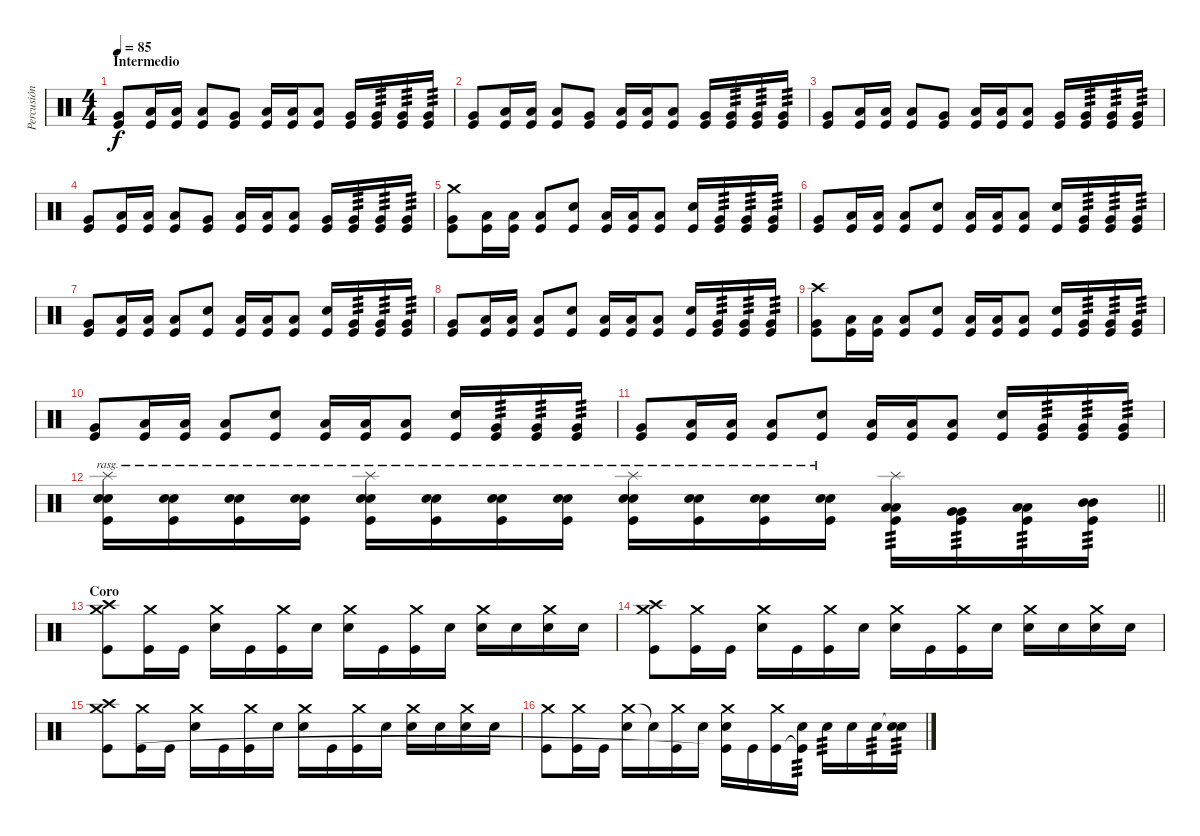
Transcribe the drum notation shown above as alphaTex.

\track ("Percusión" "Percusión") {instrument percussion}
\staff {score}
\articulation defaults
\ts (4 4)
\section ("" "Intermedio")
\tempo 85
\clef neutral
\ks c
("Very Low Tom (hit)" "Kick (hit)").8{dy f} ("Low Floor Tom (hit)" "Kick (hit)").16 ("Low Floor Tom (hit)" "Kick (hit)").16 ("Low Floor Tom (hit)" "Kick (hit)").8 ("Very Low Tom (hit)" "Kick (hit)").8 ("Low Floor Tom (hit)" "Kick (hit)").16 ("Low Floor Tom (hit)" "Kick (hit)").16 ("Low Floor Tom (hit)" "Kick (hit)").8 ("Very Low Tom (hit)" "Kick (hit)").16 ("Very Low Tom (hit)" "Kick (hit)").16{tp 3} ("Very Low Tom (hit)" "Kick (hit)").16{tp 3} ("Very Low Tom (hit)" "Kick (hit)").16{tp 3} |
("Very Low Tom (hit)" "Kick (hit)").8 ("Low Floor Tom (hit)" "Kick (hit)").16 ("Low Floor Tom (hit)" "Kick (hit)").16 ("Low Floor Tom (hit)" "Kick (hit)").8 ("Very Low Tom (hit)" "Kick (hit)").8 ("Low Floor Tom (hit)" "Kick (hit)").16 ("Low Floor Tom (hit)" "Kick (hit)").16 ("Low Floor Tom (hit)" "Kick (hit)").8 ("Very Low Tom (hit)" "Kick (hit)").16 ("Very Low Tom (hit)" "Kick (hit)").16{tp 3} ("Very Low Tom (hit)" "Kick (hit)").16{tp 3} ("Very Low Tom (hit)" "Kick (hit)").16{tp 3} |
("Very Low Tom (hit)" "Kick (hit)").8 ("Low Floor Tom (hit)" "Kick (hit)").16 ("Low Floor Tom (hit)" "Kick (hit)").16 ("Low Floor Tom (hit)" "Kick (hit)").8 ("Very Low Tom (hit)" "Kick (hit)").8 ("Low Floor Tom (hit)" "Kick (hit)").16 ("Low Floor Tom (hit)" "Kick (hit)").16 ("Low Floor Tom (hit)" "Kick (hit)").8 ("Very Low Tom (hit)" "Kick (hit)").16 ("Very Low Tom (hit)" "Kick (hit)").16{tp 3} ("Very Low Tom (hit)" "Kick (hit)").16{tp 3} ("Very Low Tom (hit)" "Kick (hit)").16{tp 3} |
("Very Low Tom (hit)" "Kick (hit)").8 ("Low Floor Tom (hit)" "Kick (hit)").16 ("Low Floor Tom (hit)" "Kick (hit)").16 ("Low Floor Tom (hit)" "Kick (hit)").8 ("Very Low Tom (hit)" "Kick (hit)").8 ("Low Floor Tom (hit)" "Kick (hit)").16 ("Low Floor Tom (hit)" "Kick (hit)").16 ("Low Floor Tom (hit)" "Kick (hit)").8 ("Very Low Tom (hit)" "Kick (hit)").16 ("Very Low Tom (hit)" "Kick (hit)").16{tp 3} ("Very Low Tom (hit)" "Kick (hit)").16{tp 3} ("Very Low Tom (hit)" "Kick (hit)").16{tp 3} |
("Crash medium (hit)" "Very Low Tom (hit)" "Kick (hit)").8 ("Low Floor Tom (hit)" "Kick (hit)").16 ("Low Floor Tom (hit)" "Kick (hit)").16 ("Low Floor Tom (hit)" "Kick (hit)").8 ("Electric Snare (hit)" "Kick (hit)").8 ("Low Floor Tom (hit)" "Kick (hit)").16 ("Low Floor Tom (hit)" "Kick (hit)").16 ("Low Floor Tom (hit)" "Kick (hit)").8 ("Electric Snare (hit)" "Kick (hit)").16 ("Very Low Tom (hit)" "Kick (hit)").16{tp 3} ("Very Low Tom (hit)" "Kick (hit)").16{tp 3} ("Very Low Tom (hit)" "Kick (hit)").16{tp 3} |
("Very Low Tom (hit)" "Kick (hit)").8 ("Low Floor Tom (hit)" "Kick (hit)").16 ("Low Floor Tom (hit)" "Kick (hit)").16 ("Low Floor Tom (hit)" "Kick (hit)").8 ("Electric Snare (hit)" "Kick (hit)").8 ("Low Floor Tom (hit)" "Kick (hit)").16 ("Low Floor Tom (hit)" "Kick (hit)").16 ("Low Floor Tom (hit)" "Kick (hit)").8 ("Electric Snare (hit)" "Kick (hit)").16 ("Very Low Tom (hit)" "Kick (hit)").16{tp 3} ("Very Low Tom (hit)" "Kick (hit)").16{tp 3} ("Very Low Tom (hit)" "Kick (hit)").16{tp 3} |
("Very Low Tom (hit)" "Kick (hit)").8 ("Low Floor Tom (hit)" "Kick (hit)").16 ("Low Floor Tom (hit)" "Kick (hit)").16 ("Low Floor Tom (hit)" "Kick (hit)").8 ("Electric Snare (hit)" "Kick (hit)").8 ("Low Floor Tom (hit)" "Kick (hit)").16 ("Low Floor Tom (hit)" "Kick (hit)").16 ("Low Floor Tom (hit)" "Kick (hit)").8 ("Electric Snare (hit)" "Kick (hit)").16 ("Very Low Tom (hit)" "Kick (hit)").16{tp 3} ("Very Low Tom (hit)" "Kick (hit)").16{tp 3} ("Very Low Tom (hit)" "Kick (hit)").16{tp 3} |
("Very Low Tom (hit)" "Kick (hit)").8 ("Low Floor Tom (hit)" "Kick (hit)").16 ("Low Floor Tom (hit)" "Kick (hit)").16 ("Low Floor Tom (hit)" "Kick (hit)").8 ("Electric Snare (hit)" "Kick (hit)").8 ("Low Floor Tom (hit)" "Kick (hit)").16 ("Low Floor Tom (hit)" "Kick (hit)").16 ("Low Floor Tom (hit)" "Kick (hit)").8 ("Electric Snare (hit)" "Kick (hit)").16 ("Very Low Tom (hit)" "Kick (hit)").16{tp 3} ("Very Low Tom (hit)" "Kick (hit)").16{tp 3} ("Very Low Tom (hit)" "Kick (hit)").16{tp 3} |
("Crash high (hit)" "Very Low Tom (hit)" "Kick (hit)").8 ("Low Floor Tom (hit)" "Kick (hit)").16 ("Low Floor Tom (hit)" "Kick (hit)").16 ("Low Floor Tom (hit)" "Kick (hit)").8 ("Electric Snare (hit)" "Kick (hit)").8 ("Low Floor Tom (hit)" "Kick (hit)").16 ("Low Floor Tom (hit)" "Kick (hit)").16 ("Low Floor Tom (hit)" "Kick (hit)").8 ("Electric Snare (hit)" "Kick (hit)").16 ("Very Low Tom (hit)" "Kick (hit)").16{tp 3} ("Very Low Tom (hit)" "Kick (hit)").16{tp 3} ("Very Low Tom (hit)" "Kick (hit)").16{tp 3} |
("Very Low Tom (hit)" "Kick (hit)").8 ("Low Floor Tom (hit)" "Kick (hit)").16 ("Low Floor Tom (hit)" "Kick (hit)").16 ("Low Floor Tom (hit)" "Kick (hit)").8 ("Electric Snare (hit)" "Kick (hit)").8 ("Low Floor Tom (hit)" "Kick (hit)").16 ("Low Floor Tom (hit)" "Kick (hit)").16 ("Low Floor Tom (hit)" "Kick (hit)").8 ("Electric Snare (hit)" "Kick (hit)").16 ("Very Low Tom (hit)" "Kick (hit)").16{tp 3} ("Very Low Tom (hit)" "Kick (hit)").16{tp 3} ("Very Low Tom (hit)" "Kick (hit)").16{tp 3} |
("Very Low Tom (hit)" "Kick (hit)").8 ("Low Floor Tom (hit)" "Kick (hit)").16 ("Low Floor Tom (hit)" "Kick (hit)").16 ("Low Floor Tom (hit)" "Kick (hit)").8 ("Electric Snare (hit)" "Kick (hit)").8 ("Low Floor Tom (hit)" "Kick (hit)").16 ("Low Floor Tom (hit)" "Kick (hit)").16 ("Low Floor Tom (hit)" "Kick (hit)").8 ("Electric Snare (hit)" "Kick (hit)").16 ("Very Low Tom (hit)" "Kick (hit)").16{tp 3} ("Very Low Tom (hit)" "Kick (hit)").16{tp 3} ("Very Low Tom (hit)" "Kick (hit)").16{tp 3} |
\barLineRight lightlight
("Splash (hit)" "Electric Snare (hit)" "Electric Snare (hit)" "Kick (hit)").16{bd 60 rasg ii} ("Electric Snare (hit)" "Electric Snare (hit)" "Kick (hit)").16{bd 60 rasg ii} ("Electric Snare (hit)" "Electric Snare (hit)" "Kick (hit)").16{bd 60 rasg ii} ("Electric Snare (hit)" "Electric Snare (hit)" "Kick (hit)").16{bd 60 rasg ii} ("Splash (hit)" "Electric Snare (hit)" "Electric Snare (hit)" "Kick (hit)").16{bd 60 rasg ii} ("Electric Snare (hit)" "Electric Snare (hit)" "Kick (hit)").16{bd 60 rasg ii} ("Electric Snare (hit)" "Electric Snare (hit)" "Kick (hit)").16{bd 60 rasg ii} ("Electric Snare (hit)" "Electric Snare (hit)" "Kick (hit)").16{bd 60 rasg ii} ("Splash (hit)" "Electric Snare (hit)" "Electric Snare (hit)" "Kick (hit)").16{bd 60 rasg ii} ("Electric Snare (hit)" "Electric Snare (hit)" "Kick (hit)").16{bd 60 rasg ii} ("Electric Snare (hit)" "Electric Snare (hit)" "Kick (hit)").16{bd 60 rasg ii} ("Electric Snare (hit)" "Electric Snare (hit)" "Kick (hit)").16{bd 60 rasg ii} ("Splash (hit)" "Low Floor Tom (hit)" "Low Floor Tom (hit)" "Kick (hit)").16{tp 3} ("Very Low Tom (hit)" "Very Low Tom (hit)" "Kick (hit)").16{tp 3} ("Low Tom (hit)" "Low Tom (hit)" "Kick (hit)").16{tp 3} ("Mid Tom (hit)" "Mid Tom (hit)" "Kick (hit)").16{tp 3} |
\section ("" "Coro")
("Crash medium (hit)" "Crash high (hit)" "Kick (hit)").8 ("Crash medium (hit)" "Kick (hit)").16 "Kick (hit)".16 ("Crash medium (hit)" "Electric Snare (hit)").16 "Kick (hit)".16 ("Crash medium (hit)" "Kick (hit)").16 "Electric Snare (hit)".16 ("Crash medium (hit)" "Electric Snare (hit)").16 "Kick (hit)".16 ("Crash medium (hit)" "Kick (hit)").16 "Electric Snare (hit)".16 ("Crash medium (hit)" "Electric Snare (hit)").16 "Electric Snare (hit)".16 ("Crash medium (hit)" "Electric Snare (hit)").16 "Electric Snare (hit)".16 |
("Crash medium (hit)" "Crash high (hit)" "Kick (hit)").8 ("Crash medium (hit)" "Kick (hit)").16 "Kick (hit)".16 ("Crash medium (hit)" "Electric Snare (hit)").16 "Kick (hit)".16 ("Crash medium (hit)" "Kick (hit)").16 "Electric Snare (hit)".16 ("Crash medium (hit)" "Electric Snare (hit)").16 "Kick (hit)".16 ("Crash medium (hit)" "Kick (hit)").16 "Electric Snare (hit)".16 ("Crash medium (hit)" "Electric Snare (hit)").16 "Electric Snare (hit)".16 ("Crash medium (hit)" "Electric Snare (hit)").16 "Electric Snare (hit)".16 |
("Crash medium (hit)" "Crash high (hit)" "Kick (hit)").8 ("Crash medium (hit)" "Kick (hit)").16 "Kick (hit)".16 ("Crash medium (hit)" "Electric Snare (hit)").16 "Kick (hit)".16 ("Crash medium (hit)" "Kick (hit)").16 "Electric Snare (hit)".16 ("Crash medium (hit)" "Electric Snare (hit)").16 "Kick (hit)".16 ("Crash medium (hit)" "Kick (hit)").16 "Electric Snare (hit)".16 ("Crash medium (hit)" "Electric Snare (hit)").16 "Electric Snare (hit)".16 ("Crash medium (hit)" "Electric Snare (hit)").16 "Electric Snare (hit)".16 |
("Crash medium (hit)" "Kick (hit)").8 ("Crash medium (hit)" "Kick (hit)").16 "Kick (hit)".16 ("Crash medium (hit)" "Electric Snare (hit)").16 "Snare (hit)"{t}.16 ("Crash medium (hit)" "Kick (hit)").16 "Electric Snare (hit)".16 ("Crash medium (hit)" "Electric Snare (hit)" "Kick (hit)"{t}).16 "Kick (hit)".16 ("Crash medium (hit)" "Kick (hit)").16 ("Electric Snare (hit)" "Kick (hit)"{t}).16{tp 3} "Electric Snare (hit)".16{tp 3} "Electric Snare (hit)".16 "Electric Snare (hit)".16{tp 3} ("Snare (hit)"{t} "Electric Snare (hit)").16{tp 3}
